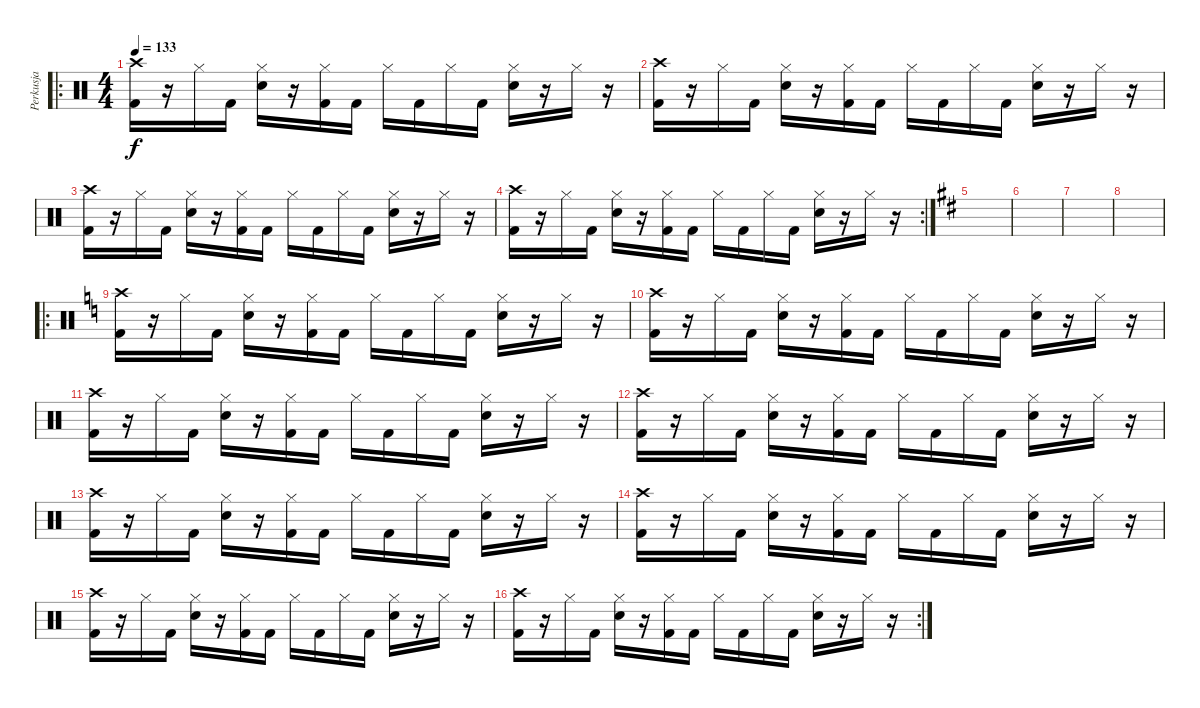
\track ("Perkusja" "Perkusja") {instrument percussion}
\staff {score}
\articulation defaults
\ro
\ts (4 4)
\tempo 133
\clef neutral
\ks c
("Crash high (hit)" "Kick (hit) 2").16{dy f} r.16 "Hi-Hat (closed)".16 "Kick (hit) 2".16 ("Hi-Hat (closed)" "Snare (hit) 2").16 r.16 ("Hi-Hat (closed)" "Kick (hit) 2").16 "Kick (hit) 2".16 "Hi-Hat (closed)".16 "Kick (hit) 2".16 "Hi-Hat (closed)".16 "Kick (hit) 2".16 ("Hi-Hat (closed)" "Snare (hit) 2").16 r.16 "Hi-Hat (closed)".16 r.16 |
("Crash high (hit)" "Kick (hit) 2").16 r.16 "Hi-Hat (closed)".16 "Kick (hit) 2".16 ("Hi-Hat (closed)" "Snare (hit) 2").16 r.16 ("Hi-Hat (closed)" "Kick (hit) 2").16 "Kick (hit) 2".16 "Hi-Hat (closed)".16 "Kick (hit) 2".16 "Hi-Hat (closed)".16 "Kick (hit) 2".16 ("Hi-Hat (closed)" "Snare (hit) 2").16 r.16 "Hi-Hat (closed)".16 r.16 |
("Crash high (hit)" "Kick (hit) 2").16 r.16 "Hi-Hat (closed)".16 "Kick (hit) 2".16 ("Hi-Hat (closed)" "Snare (hit) 2").16 r.16 ("Hi-Hat (closed)" "Kick (hit) 2").16 "Kick (hit) 2".16 "Hi-Hat (closed)".16 "Kick (hit) 2".16 "Hi-Hat (closed)".16 "Kick (hit) 2".16 ("Hi-Hat (closed)" "Snare (hit) 2").16 r.16 "Hi-Hat (closed)".16 r.16 |
\rc 2
("Crash high (hit)" "Kick (hit) 2").16 r.16 "Hi-Hat (closed)".16 "Kick (hit) 2".16 ("Hi-Hat (closed)" "Snare (hit) 2").16 r.16 ("Hi-Hat (closed)" "Kick (hit) 2").16 "Kick (hit) 2".16 "Hi-Hat (closed)".16 "Kick (hit) 2".16 "Hi-Hat (closed)".16 "Kick (hit) 2".16 ("Hi-Hat (closed)" "Snare (hit) 2").16 r.16 "Hi-Hat (closed)".16 r.16 |
\ks d
|
|
|
|
\ro
\ks c
("Crash high (hit)" "Kick (hit) 2").16 r.16 "Hi-Hat (closed)".16 "Kick (hit) 2".16 ("Hi-Hat (closed)" "Snare (hit) 2").16 r.16 ("Hi-Hat (closed)" "Kick (hit) 2").16 "Kick (hit) 2".16 "Hi-Hat (closed)".16 "Kick (hit) 2".16 "Hi-Hat (closed)".16 "Kick (hit) 2".16 ("Hi-Hat (closed)" "Snare (hit) 2").16 r.16 "Hi-Hat (closed)".16 r.16 |
("Crash high (hit)" "Kick (hit) 2").16 r.16 "Hi-Hat (closed)".16 "Kick (hit) 2".16 ("Hi-Hat (closed)" "Snare (hit) 2").16 r.16 ("Hi-Hat (closed)" "Kick (hit) 2").16 "Kick (hit) 2".16 "Hi-Hat (closed)".16 "Kick (hit) 2".16 "Hi-Hat (closed)".16 "Kick (hit) 2".16 ("Hi-Hat (closed)" "Snare (hit) 2").16 r.16 "Hi-Hat (closed)".16 r.16 |
("Crash high (hit)" "Kick (hit) 2").16 r.16 "Hi-Hat (closed)".16 "Kick (hit) 2".16 ("Hi-Hat (closed)" "Snare (hit) 2").16 r.16 ("Hi-Hat (closed)" "Kick (hit) 2").16 "Kick (hit) 2".16 "Hi-Hat (closed)".16 "Kick (hit) 2".16 "Hi-Hat (closed)".16 "Kick (hit) 2".16 ("Hi-Hat (closed)" "Snare (hit) 2").16 r.16 "Hi-Hat (closed)".16 r.16 |
("Crash high (hit)" "Kick (hit) 2").16 r.16 "Hi-Hat (closed)".16 "Kick (hit) 2".16 ("Hi-Hat (closed)" "Snare (hit) 2").16 r.16 ("Hi-Hat (closed)" "Kick (hit) 2").16 "Kick (hit) 2".16 "Hi-Hat (closed)".16 "Kick (hit) 2".16 "Hi-Hat (closed)".16 "Kick (hit) 2".16 ("Hi-Hat (closed)" "Snare (hit) 2").16 r.16 "Hi-Hat (closed)".16 r.16 |
("Crash high (hit)" "Kick (hit) 2").16 r.16 "Hi-Hat (closed)".16 "Kick (hit) 2".16 ("Hi-Hat (closed)" "Snare (hit) 2").16 r.16 ("Hi-Hat (closed)" "Kick (hit) 2").16 "Kick (hit) 2".16 "Hi-Hat (closed)".16 "Kick (hit) 2".16 "Hi-Hat (closed)".16 "Kick (hit) 2".16 ("Hi-Hat (closed)" "Snare (hit) 2").16 r.16 "Hi-Hat (closed)".16 r.16 |
("Crash high (hit)" "Kick (hit) 2").16 r.16 "Hi-Hat (closed)".16 "Kick (hit) 2".16 ("Hi-Hat (closed)" "Snare (hit) 2").16 r.16 ("Hi-Hat (closed)" "Kick (hit) 2").16 "Kick (hit) 2".16 "Hi-Hat (closed)".16 "Kick (hit) 2".16 "Hi-Hat (closed)".16 "Kick (hit) 2".16 ("Hi-Hat (closed)" "Snare (hit) 2").16 r.16 "Hi-Hat (closed)".16 r.16 |
("Crash high (hit)" "Kick (hit) 2").16 r.16 "Hi-Hat (closed)".16 "Kick (hit) 2".16 ("Hi-Hat (closed)" "Snare (hit) 2").16 r.16 ("Hi-Hat (closed)" "Kick (hit) 2").16 "Kick (hit) 2".16 "Hi-Hat (closed)".16 "Kick (hit) 2".16 "Hi-Hat (closed)".16 "Kick (hit) 2".16 ("Hi-Hat (closed)" "Snare (hit) 2").16 r.16 "Hi-Hat (closed)".16 r.16 |
\rc 2
("Crash high (hit)" "Kick (hit) 2").16 r.16 "Hi-Hat (closed)".16 "Kick (hit) 2".16 ("Hi-Hat (closed)" "Snare (hit) 2").16 r.16 ("Hi-Hat (closed)" "Kick (hit) 2").16 "Kick (hit) 2".16 "Hi-Hat (closed)".16 "Kick (hit) 2".16 "Hi-Hat (closed)".16 "Kick (hit) 2".16 ("Hi-Hat (closed)" "Snare (hit) 2").16 r.16 "Hi-Hat (closed)".16 r.16
